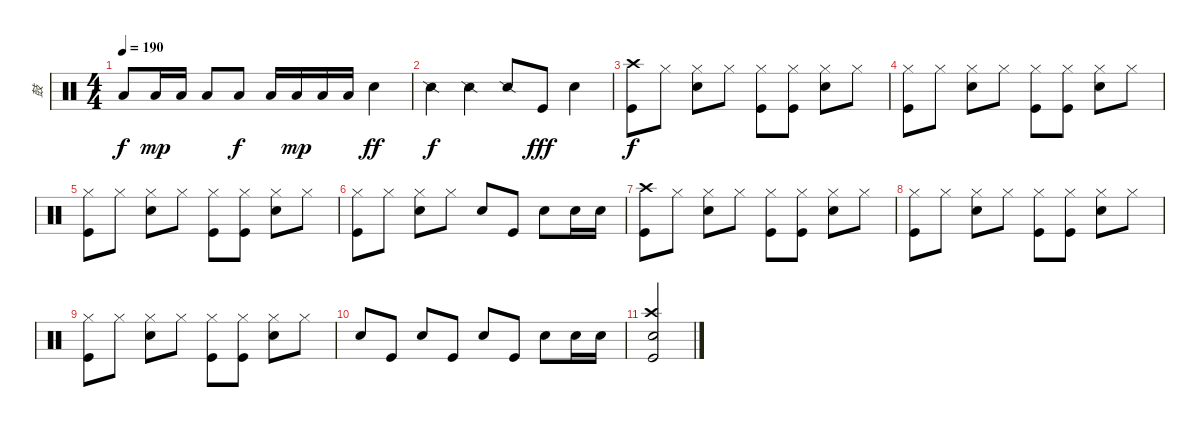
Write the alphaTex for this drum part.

\track ("鼓" "鼓") {instrument percussion}
\staff {score}
\articulation defaults
\ts (4 4)
\tempo 190
\clef neutral
\ks c "Low Floor Tom (hit)".8{dy f} "Low Floor Tom (hit)".16{dy mp} "Low Floor Tom (hit)".16 "Low Floor Tom (hit)".8 "Low Floor Tom (hit)".8{dy f} "Low Floor Tom (hit)".16 "Low Floor Tom (hit)".16{dy mp} "Low Floor Tom (hit)".16 "Low Floor Tom (hit)".16 "Electric Snare (hit)".4{dy ff}
|
"Snare (side stick) 2".4{dy f} "Snare (side stick) 2".4 "Snare (side stick) 2".8 "Kick (hit)".8{dy fff} "Electric Snare (hit)".4 |
("Crash high (hit)" "Kick (hit)").8{dy f} "Hi-Hat (closed)".8 ("Hi-Hat (closed)" "Snare (hit) 2").8 "Hi-Hat (closed)".8 ("Hi-Hat (closed)" "Kick (hit)").8 ("Hi-Hat (closed)" "Kick (hit)").8 ("Hi-Hat (closed)" "Snare (hit) 2").8 "Hi-Hat (closed)".8 |
("Hi-Hat (closed)" "Kick (hit)").8 "Hi-Hat (closed)".8 ("Hi-Hat (closed)" "Snare (hit) 2").8 "Hi-Hat (closed)".8 ("Hi-Hat (closed)" "Kick (hit)").8 ("Hi-Hat (closed)" "Kick (hit)").8 ("Hi-Hat (closed)" "Snare (hit) 2").8 "Hi-Hat (closed)".8 |
("Hi-Hat (closed)" "Kick (hit)").8 "Hi-Hat (closed)".8 ("Hi-Hat (closed)" "Snare (hit) 2").8 "Hi-Hat (closed)".8 ("Hi-Hat (closed)" "Kick (hit)").8 ("Hi-Hat (closed)" "Kick (hit)").8 ("Hi-Hat (closed)" "Snare (hit) 2").8 "Hi-Hat (closed)".8 |
("Hi-Hat (closed)" "Kick (hit)").8 "Hi-Hat (closed)".8 ("Hi-Hat (closed)" "Snare (hit) 2").8 "Hi-Hat (closed)".8 "Snare (hit) 2".8 "Kick (hit)".8 "Snare (hit) 2".8 "Snare (hit) 2".16 "Snare (hit) 2".16 |
("Crash high (hit)" "Kick (hit)").8 "Hi-Hat (closed)".8 ("Hi-Hat (closed)" "Snare (hit) 2").8 "Hi-Hat (closed)".8 ("Hi-Hat (closed)" "Kick (hit)").8 ("Hi-Hat (closed)" "Kick (hit)").8 ("Hi-Hat (closed)" "Snare (hit) 2").8 "Hi-Hat (closed)".8 |
("Hi-Hat (closed)" "Kick (hit)").8 "Hi-Hat (closed)".8 ("Hi-Hat (closed)" "Snare (hit) 2").8 "Hi-Hat (closed)".8 ("Hi-Hat (closed)" "Kick (hit)").8 ("Hi-Hat (closed)" "Kick (hit)").8 ("Hi-Hat (closed)" "Snare (hit) 2").8 "Hi-Hat (closed)".8 |
("Hi-Hat (closed)" "Kick (hit)").8 "Hi-Hat (closed)".8 ("Hi-Hat (closed)" "Snare (hit) 2").8 "Hi-Hat (closed)".8 ("Hi-Hat (closed)" "Kick (hit)").8 ("Hi-Hat (closed)" "Kick (hit)").8 ("Hi-Hat (closed)" "Snare (hit) 2").8 "Hi-Hat (closed)".8 |
"Snare (hit) 2".8 "Kick (hit)".8 "Snare (hit) 2".8 "Kick (hit)".8 "Snare (hit) 2".8 "Kick (hit)".8 "Snare (hit) 2".8 "Snare (hit) 2".16 "Snare (hit) 2".16 |
("Crash high (hit)" "Snare (hit) 2" "Kick (hit)").2
